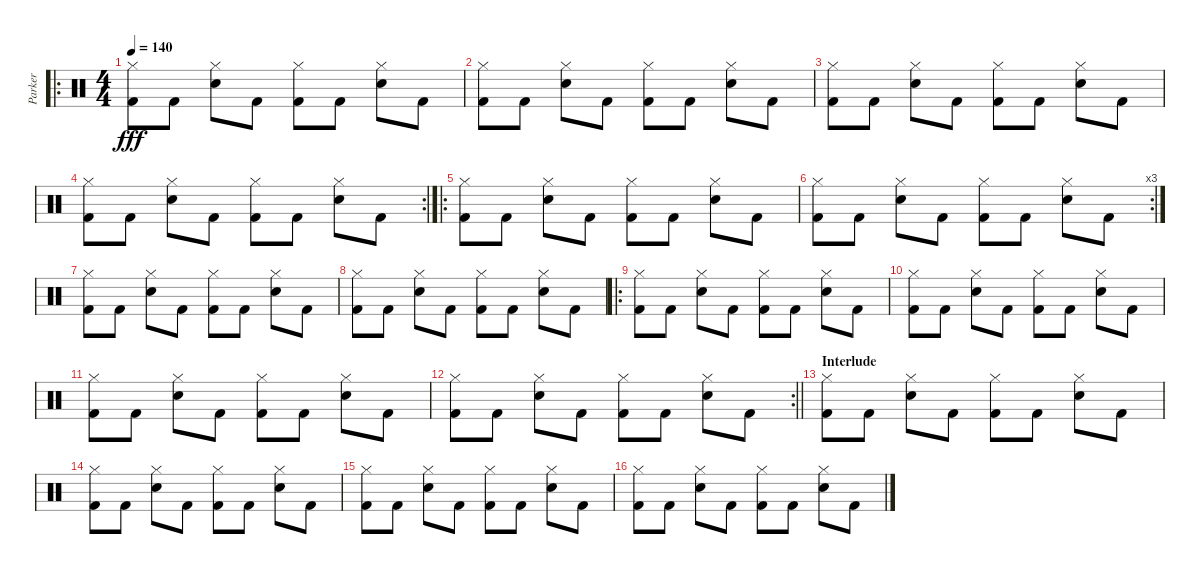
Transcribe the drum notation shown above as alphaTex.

\track ("Parker" "Parker") {instrument percussion}
\staff {score}
\articulation defaults
\ro
\ts (4 4)
\tempo 140
\clef neutral
\ks c
("Kick (hit) 2" "Hi-Hat (closed)").8{dy fff} "Kick (hit) 2".8 ("Hi-Hat (closed)" "Snare (hit) 2").8 "Kick (hit) 2".8 ("Kick (hit) 2" "Hi-Hat (closed)").8 "Kick (hit) 2".8 ("Hi-Hat (closed)" "Snare (hit) 2").8 "Kick (hit) 2".8 |
("Kick (hit) 2" "Hi-Hat (closed)").8 "Kick (hit) 2".8 ("Hi-Hat (closed)" "Snare (hit) 2").8 "Kick (hit) 2".8 ("Kick (hit) 2" "Hi-Hat (closed)").8 "Kick (hit) 2".8 ("Hi-Hat (closed)" "Snare (hit) 2").8 "Kick (hit) 2".8 |
("Kick (hit) 2" "Hi-Hat (closed)").8 "Kick (hit) 2".8 ("Hi-Hat (closed)" "Snare (hit) 2").8 "Kick (hit) 2".8 ("Kick (hit) 2" "Hi-Hat (closed)").8 "Kick (hit) 2".8 ("Hi-Hat (closed)" "Snare (hit) 2").8 "Kick (hit) 2".8 |
\rc 2
("Kick (hit) 2" "Hi-Hat (closed)").8 "Kick (hit) 2".8 ("Hi-Hat (closed)" "Snare (hit) 2").8 "Kick (hit) 2".8 ("Kick (hit) 2" "Hi-Hat (closed)").8 "Kick (hit) 2".8 ("Hi-Hat (closed)" "Snare (hit) 2").8 "Kick (hit) 2".8 |
\ro
("Kick (hit) 2" "Hi-Hat (closed)").8 "Kick (hit) 2".8 ("Hi-Hat (closed)" "Snare (hit) 2").8 "Kick (hit) 2".8 ("Kick (hit) 2" "Hi-Hat (closed)").8 "Kick (hit) 2".8 ("Hi-Hat (closed)" "Snare (hit) 2").8 "Kick (hit) 2".8 |
\rc 3
("Kick (hit) 2" "Hi-Hat (closed)").8 "Kick (hit) 2".8 ("Hi-Hat (closed)" "Snare (hit) 2").8 "Kick (hit) 2".8 ("Kick (hit) 2" "Hi-Hat (closed)").8 "Kick (hit) 2".8 ("Hi-Hat (closed)" "Snare (hit) 2").8 "Kick (hit) 2".8 |
("Kick (hit) 2" "Hi-Hat (closed)").8 "Kick (hit) 2".8 ("Hi-Hat (closed)" "Snare (hit) 2").8 "Kick (hit) 2".8 ("Kick (hit) 2" "Hi-Hat (closed)").8 "Kick (hit) 2".8 ("Hi-Hat (closed)" "Snare (hit) 2").8 "Kick (hit) 2".8 |
("Kick (hit) 2" "Hi-Hat (closed)").8 "Kick (hit) 2".8 ("Hi-Hat (closed)" "Snare (hit) 2").8 "Kick (hit) 2".8 ("Kick (hit) 2" "Hi-Hat (closed)").8 "Kick (hit) 2".8 ("Hi-Hat (closed)" "Snare (hit) 2").8 "Kick (hit) 2".8 |
\ro
("Kick (hit) 2" "Hi-Hat (closed)").8 "Kick (hit) 2".8 ("Hi-Hat (closed)" "Snare (hit) 2").8 "Kick (hit) 2".8 ("Kick (hit) 2" "Hi-Hat (closed)").8 "Kick (hit) 2".8 ("Hi-Hat (closed)" "Snare (hit) 2").8 "Kick (hit) 2".8 |
("Kick (hit) 2" "Hi-Hat (closed)").8 "Kick (hit) 2".8 ("Hi-Hat (closed)" "Snare (hit) 2").8 "Kick (hit) 2".8 ("Kick (hit) 2" "Hi-Hat (closed)").8 "Kick (hit) 2".8 ("Hi-Hat (closed)" "Snare (hit) 2").8 "Kick (hit) 2".8 |
("Kick (hit) 2" "Hi-Hat (closed)").8 "Kick (hit) 2".8 ("Hi-Hat (closed)" "Snare (hit) 2").8 "Kick (hit) 2".8 ("Kick (hit) 2" "Hi-Hat (closed)").8 "Kick (hit) 2".8 ("Hi-Hat (closed)" "Snare (hit) 2").8 "Kick (hit) 2".8 |
\rc 2
\barLineRight lightlight
("Kick (hit) 2" "Hi-Hat (closed)").8 "Kick (hit) 2".8 ("Hi-Hat (closed)" "Snare (hit) 2").8 "Kick (hit) 2".8 ("Kick (hit) 2" "Hi-Hat (closed)").8 "Kick (hit) 2".8 ("Hi-Hat (closed)" "Snare (hit) 2").8 "Kick (hit) 2".8 |
\section ("" "Interlude")
("Kick (hit) 2" "Hi-Hat (closed)").8 "Kick (hit) 2".8 ("Hi-Hat (closed)" "Snare (hit) 2").8 "Kick (hit) 2".8 ("Kick (hit) 2" "Hi-Hat (closed)").8 "Kick (hit) 2".8 ("Hi-Hat (closed)" "Snare (hit) 2").8 "Kick (hit) 2".8 |
("Kick (hit) 2" "Hi-Hat (closed)").8 "Kick (hit) 2".8 ("Hi-Hat (closed)" "Snare (hit) 2").8 "Kick (hit) 2".8 ("Kick (hit) 2" "Hi-Hat (closed)").8 "Kick (hit) 2".8 ("Hi-Hat (closed)" "Snare (hit) 2").8 "Kick (hit) 2".8 |
("Kick (hit) 2" "Hi-Hat (closed)").8 "Kick (hit) 2".8 ("Hi-Hat (closed)" "Snare (hit) 2").8 "Kick (hit) 2".8 ("Kick (hit) 2" "Hi-Hat (closed)").8 "Kick (hit) 2".8 ("Hi-Hat (closed)" "Snare (hit) 2").8 "Kick (hit) 2".8 |
("Kick (hit) 2" "Hi-Hat (closed)").8 "Kick (hit) 2".8 ("Hi-Hat (closed)" "Snare (hit) 2").8 "Kick (hit) 2".8 ("Kick (hit) 2" "Hi-Hat (closed)").8 "Kick (hit) 2".8 ("Hi-Hat (closed)" "Snare (hit) 2").8 "Kick (hit) 2".8
